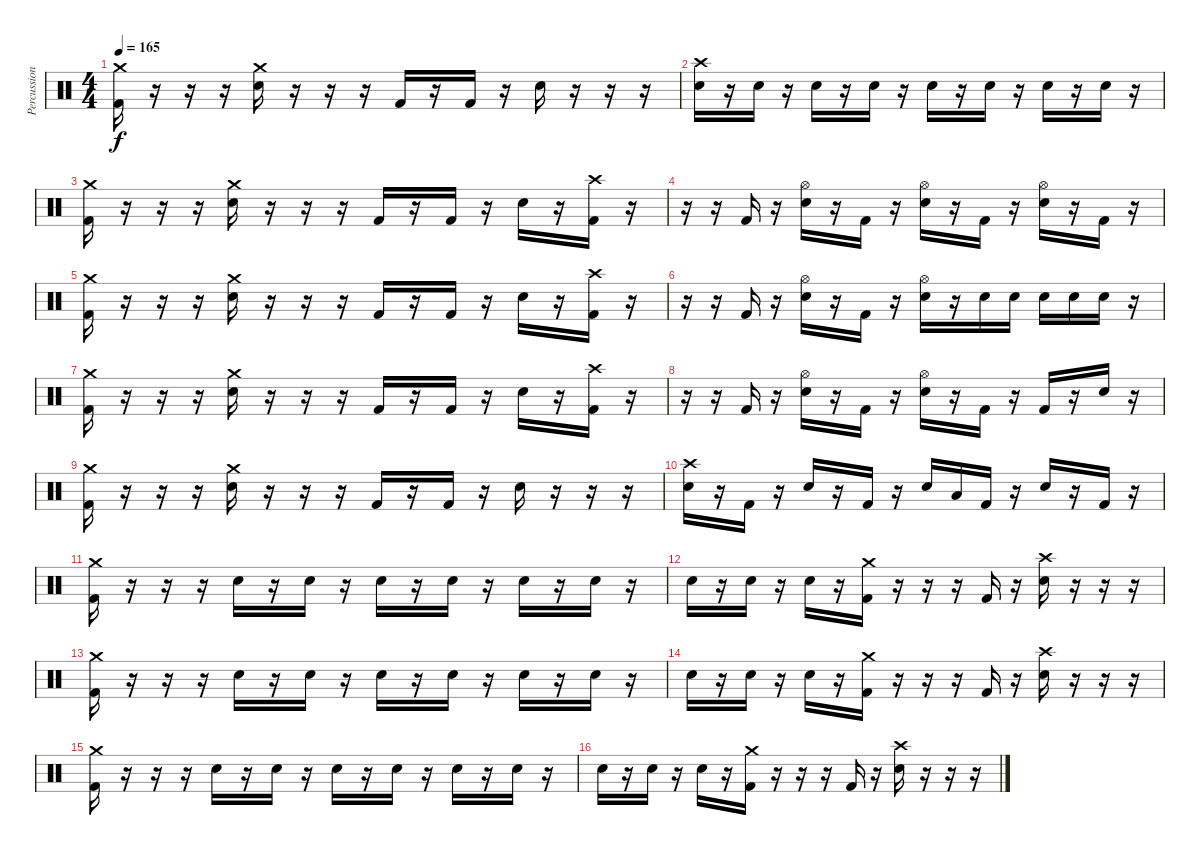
\track ("Percussion" "Percussion") {instrument percussion}
\staff {score}
\articulation defaults
\ts (4 4)
\tempo 165
\clef neutral
\ks c
("Crash medium (hit)" "Kick (hit) 2").16{dy f} r.16 r.16 r.16 ("Crash medium (hit)" "Electric Snare (hit)").16 r.16 r.16 r.16 "Kick (hit) 2".16 r.16 "Kick (hit) 2".16 r.16 "Electric Snare (hit)".16 r.16 r.16 r.16 |
("Crash high (hit)" "Electric Snare (hit)").16 r.16 "Electric Snare (hit)".16 r.16 "Electric Snare (hit)".16 r.16 "Electric Snare (hit)".16 r.16 "Electric Snare (hit)".16 r.16 "Electric Snare (hit)".16 r.16 "Electric Snare (hit)".16 r.16 "Electric Snare (hit)".16 r.16 |
("Crash medium (hit)" "Kick (hit) 2").16 r.16 r.16 r.16 ("Crash medium (hit)" "Electric Snare (hit)").16 r.16 r.16 r.16 "Kick (hit) 2".16 r.16 "Kick (hit) 2".16 r.16 "Electric Snare (hit)".16 r.16 ("Crash high (hit)" "Kick (hit) 2").16 r.16 |
r.16 r.16 "Kick (hit) 2".16 r.16 ("Hi-Hat (open)" "Electric Snare (hit)").16 r.16 "Kick (hit) 2".16 r.16 ("Hi-Hat (open)" "Electric Snare (hit)").16 r.16 "Kick (hit) 2".16 r.16 ("Hi-Hat (open)" "Electric Snare (hit)").16 r.16 "Kick (hit) 2".16 r.16 |
("Crash medium (hit)" "Kick (hit) 2").16 r.16 r.16 r.16 ("Crash medium (hit)" "Electric Snare (hit)").16 r.16 r.16 r.16 "Kick (hit) 2".16 r.16 "Kick (hit) 2".16 r.16 "Electric Snare (hit)".16 r.16 ("Crash high (hit)" "Kick (hit) 2").16 r.16 |
r.16 r.16 "Kick (hit) 2".16 r.16 ("Hi-Hat (open)" "Electric Snare (hit)").16 r.16 "Kick (hit) 2".16 r.16 ("Hi-Hat (open)" "Electric Snare (hit)").16 r.16 "Electric Snare (hit)".16 "Electric Snare (hit)".16 "Electric Snare (hit)".16 "Electric Snare (hit)".16 "Electric Snare (hit)".16 r.16 |
("Crash medium (hit)" "Kick (hit) 2").16 r.16 r.16 r.16 ("Crash medium (hit)" "Electric Snare (hit)").16 r.16 r.16 r.16 "Kick (hit) 2".16 r.16 "Kick (hit) 2".16 r.16 "Electric Snare (hit)".16 r.16 ("Crash high (hit)" "Kick (hit) 2").16 r.16 |
r.16 r.16 "Kick (hit) 2".16 r.16 ("Hi-Hat (open)" "Electric Snare (hit)").16 r.16 "Kick (hit) 2".16 r.16 ("Hi-Hat (open)" "Electric Snare (hit)").16 r.16 "Kick (hit) 2".16 r.16 "Kick (hit) 2".16 r.16 "Electric Snare (hit)".16 r.16 |
("Crash medium (hit)" "Kick (hit) 2").16 r.16 r.16 r.16 ("Crash medium (hit)" "Electric Snare (hit)").16 r.16 r.16 r.16 "Kick (hit) 2".16 r.16 "Kick (hit) 2".16 r.16 "Electric Snare (hit)".16 r.16 r.16 r.16 |
("Crash high (hit)" "Electric Snare (hit)").16 r.16 "Kick (hit) 2".16 r.16 "Electric Snare (hit)".16 r.16 "Kick (hit) 2".16 r.16 "Electric Snare (hit)".16 "Low Tom (hit)".16 "Kick (hit) 2".16 r.16 "Electric Snare (hit)".16 r.16 "Kick (hit) 2".16 r.16 |
("Crash medium (hit)" "Kick (hit) 2").16 r.16 r.16 r.16 "Electric Snare (hit)".16 r.16 "Electric Snare (hit)".16 r.16 "Electric Snare (hit)".16 r.16 "Electric Snare (hit)".16 r.16 "Electric Snare (hit)".16 r.16 "Electric Snare (hit)".16 r.16 |
"Electric Snare (hit)".16 r.16 "Electric Snare (hit)".16 r.16 "Electric Snare (hit)".16 r.16 ("Crash medium (hit)" "Kick (hit) 2").16 r.16 r.16 r.16 "Kick (hit) 2".16 r.16 ("Crash high (hit)" "Electric Snare (hit)").16 r.16 r.16 r.16 |
("Crash medium (hit)" "Kick (hit) 2").16 r.16 r.16 r.16 "Electric Snare (hit)".16 r.16 "Electric Snare (hit)".16 r.16 "Electric Snare (hit)".16 r.16 "Electric Snare (hit)".16 r.16 "Electric Snare (hit)".16 r.16 "Electric Snare (hit)".16 r.16 |
"Electric Snare (hit)".16 r.16 "Electric Snare (hit)".16 r.16 "Electric Snare (hit)".16 r.16 ("Crash medium (hit)" "Kick (hit) 2").16 r.16 r.16 r.16 "Kick (hit) 2".16 r.16 ("Crash high (hit)" "Electric Snare (hit)").16 r.16 r.16 r.16 |
("Crash medium (hit)" "Kick (hit) 2").16 r.16 r.16 r.16 "Electric Snare (hit)".16 r.16 "Electric Snare (hit)".16 r.16 "Electric Snare (hit)".16 r.16 "Electric Snare (hit)".16 r.16 "Electric Snare (hit)".16 r.16 "Electric Snare (hit)".16 r.16 |
"Electric Snare (hit)".16 r.16 "Electric Snare (hit)".16 r.16 "Electric Snare (hit)".16 r.16 ("Crash medium (hit)" "Kick (hit) 2").16 r.16 r.16 r.16 "Kick (hit) 2".16 r.16 ("Crash high (hit)" "Electric Snare (hit)").16 r.16 r.16 r.16
